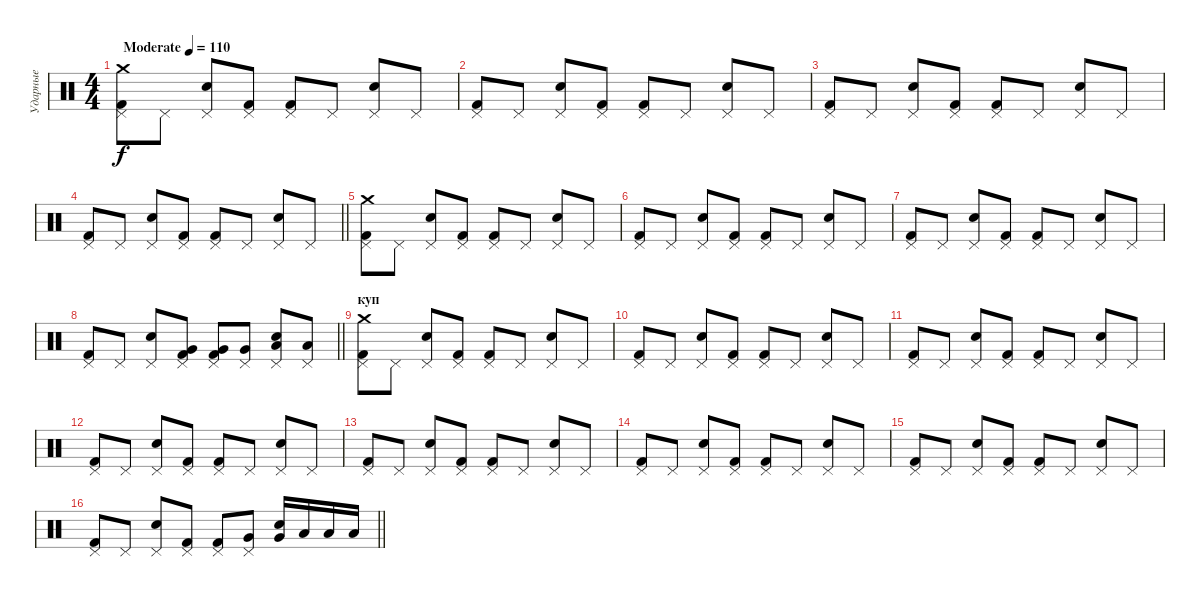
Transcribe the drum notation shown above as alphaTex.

\track ("Ударные" "Ударные") {instrument percussion}
\staff {score}
\articulation defaults
\ts (4 4)
\tempo (110 "Moderate")
\clef neutral
\ks c
("Crash medium (hit)" "Pedal Hi-Hat (hit)" "Kick (hit) 2").8{dy f} "Pedal Hi-Hat (hit)".8 ("Pedal Hi-Hat (hit)" "Electric Snare (hit)").8 ("Pedal Hi-Hat (hit)" "Kick (hit) 2").8 ("Pedal Hi-Hat (hit)" "Kick (hit) 2").8 "Pedal Hi-Hat (hit)".8 ("Pedal Hi-Hat (hit)" "Electric Snare (hit)").8 "Pedal Hi-Hat (hit)".8 |
("Pedal Hi-Hat (hit)" "Kick (hit) 2").8 "Pedal Hi-Hat (hit)".8 ("Pedal Hi-Hat (hit)" "Electric Snare (hit)").8 ("Pedal Hi-Hat (hit)" "Kick (hit) 2").8 ("Pedal Hi-Hat (hit)" "Kick (hit) 2").8 "Pedal Hi-Hat (hit)".8 ("Pedal Hi-Hat (hit)" "Electric Snare (hit)").8 "Pedal Hi-Hat (hit)".8 |
("Pedal Hi-Hat (hit)" "Kick (hit) 2").8 "Pedal Hi-Hat (hit)".8 ("Pedal Hi-Hat (hit)" "Electric Snare (hit)").8 ("Pedal Hi-Hat (hit)" "Kick (hit) 2").8 ("Pedal Hi-Hat (hit)" "Kick (hit) 2").8 "Pedal Hi-Hat (hit)".8 ("Pedal Hi-Hat (hit)" "Electric Snare (hit)").8 "Pedal Hi-Hat (hit)".8 |
\barLineRight lightlight
("Pedal Hi-Hat (hit)" "Kick (hit) 2").8 "Pedal Hi-Hat (hit)".8 ("Pedal Hi-Hat (hit)" "Electric Snare (hit)").8 ("Pedal Hi-Hat (hit)" "Kick (hit) 2").8 ("Pedal Hi-Hat (hit)" "Kick (hit) 2").8 "Pedal Hi-Hat (hit)".8 ("Pedal Hi-Hat (hit)" "Electric Snare (hit)").8 "Pedal Hi-Hat (hit)".8 |
("Crash medium (hit)" "Pedal Hi-Hat (hit)" "Kick (hit) 2").8 "Pedal Hi-Hat (hit)".8 ("Pedal Hi-Hat (hit)" "Electric Snare (hit)").8 ("Pedal Hi-Hat (hit)" "Kick (hit) 2").8 ("Pedal Hi-Hat (hit)" "Kick (hit) 2").8 "Pedal Hi-Hat (hit)".8 ("Pedal Hi-Hat (hit)" "Electric Snare (hit)").8 "Pedal Hi-Hat (hit)".8 |
("Pedal Hi-Hat (hit)" "Kick (hit) 2").8 "Pedal Hi-Hat (hit)".8 ("Pedal Hi-Hat (hit)" "Electric Snare (hit)").8 ("Pedal Hi-Hat (hit)" "Kick (hit) 2").8 ("Pedal Hi-Hat (hit)" "Kick (hit) 2").8 "Pedal Hi-Hat (hit)".8 ("Pedal Hi-Hat (hit)" "Electric Snare (hit)").8 "Pedal Hi-Hat (hit)".8 |
("Pedal Hi-Hat (hit)" "Kick (hit) 2").8 "Pedal Hi-Hat (hit)".8 ("Pedal Hi-Hat (hit)" "Electric Snare (hit)").8 ("Pedal Hi-Hat (hit)" "Kick (hit) 2").8 ("Pedal Hi-Hat (hit)" "Kick (hit) 2").8 "Pedal Hi-Hat (hit)".8 ("Pedal Hi-Hat (hit)" "Electric Snare (hit)").8 "Pedal Hi-Hat (hit)".8 |
\barLineRight lightlight
("Pedal Hi-Hat (hit)" "Kick (hit) 2").8 "Pedal Hi-Hat (hit)".8 ("Pedal Hi-Hat (hit)" "Electric Snare (hit)").8 ("Pedal Hi-Hat (hit)" "Very Low Tom (hit)" "Kick (hit) 2").8 ("Pedal Hi-Hat (hit)" "Very Low Tom (hit)" "Kick (hit) 2").8 ("Pedal Hi-Hat (hit)" "Very Low Tom (hit)").8 ("Pedal Hi-Hat (hit)" "Low Floor Tom (hit)" "Electric Snare (hit)").8 ("Pedal Hi-Hat (hit)" "Low Floor Tom (hit)").8 |
\section ("" "куп")
("Crash medium (hit)" "Pedal Hi-Hat (hit)" "Kick (hit) 2").8 "Pedal Hi-Hat (hit)".8 ("Pedal Hi-Hat (hit)" "Electric Snare (hit)").8 ("Pedal Hi-Hat (hit)" "Kick (hit) 2").8 ("Pedal Hi-Hat (hit)" "Kick (hit) 2").8 "Pedal Hi-Hat (hit)".8 ("Pedal Hi-Hat (hit)" "Electric Snare (hit)").8 "Pedal Hi-Hat (hit)".8 |
("Pedal Hi-Hat (hit)" "Kick (hit) 2").8 "Pedal Hi-Hat (hit)".8 ("Pedal Hi-Hat (hit)" "Electric Snare (hit)").8 ("Pedal Hi-Hat (hit)" "Kick (hit) 2").8 ("Pedal Hi-Hat (hit)" "Kick (hit) 2").8 "Pedal Hi-Hat (hit)".8 ("Pedal Hi-Hat (hit)" "Electric Snare (hit)").8 "Pedal Hi-Hat (hit)".8 |
("Pedal Hi-Hat (hit)" "Kick (hit) 2").8 "Pedal Hi-Hat (hit)".8 ("Pedal Hi-Hat (hit)" "Electric Snare (hit)").8 ("Pedal Hi-Hat (hit)" "Kick (hit) 2").8 ("Pedal Hi-Hat (hit)" "Kick (hit) 2").8 "Pedal Hi-Hat (hit)".8 ("Pedal Hi-Hat (hit)" "Electric Snare (hit)").8 "Pedal Hi-Hat (hit)".8 |
("Pedal Hi-Hat (hit)" "Kick (hit) 2").8 "Pedal Hi-Hat (hit)".8 ("Pedal Hi-Hat (hit)" "Electric Snare (hit)").8 ("Pedal Hi-Hat (hit)" "Kick (hit) 2").8 ("Pedal Hi-Hat (hit)" "Kick (hit) 2").8 "Pedal Hi-Hat (hit)".8 ("Pedal Hi-Hat (hit)" "Electric Snare (hit)").8 "Pedal Hi-Hat (hit)".8 |
("Pedal Hi-Hat (hit)" "Kick (hit) 2").8 "Pedal Hi-Hat (hit)".8 ("Pedal Hi-Hat (hit)" "Electric Snare (hit)").8 ("Pedal Hi-Hat (hit)" "Kick (hit) 2").8 ("Pedal Hi-Hat (hit)" "Kick (hit) 2").8 "Pedal Hi-Hat (hit)".8 ("Pedal Hi-Hat (hit)" "Electric Snare (hit)").8 "Pedal Hi-Hat (hit)".8 |
("Pedal Hi-Hat (hit)" "Kick (hit) 2").8 "Pedal Hi-Hat (hit)".8 ("Pedal Hi-Hat (hit)" "Electric Snare (hit)").8 ("Pedal Hi-Hat (hit)" "Kick (hit) 2").8 ("Pedal Hi-Hat (hit)" "Kick (hit) 2").8 "Pedal Hi-Hat (hit)".8 ("Pedal Hi-Hat (hit)" "Electric Snare (hit)").8 "Pedal Hi-Hat (hit)".8 |
("Pedal Hi-Hat (hit)" "Kick (hit) 2").8 "Pedal Hi-Hat (hit)".8 ("Pedal Hi-Hat (hit)" "Electric Snare (hit)").8 ("Pedal Hi-Hat (hit)" "Kick (hit) 2").8 ("Pedal Hi-Hat (hit)" "Kick (hit) 2").8 "Pedal Hi-Hat (hit)".8 ("Pedal Hi-Hat (hit)" "Electric Snare (hit)").8 "Pedal Hi-Hat (hit)".8 |
\barLineRight lightlight
("Pedal Hi-Hat (hit)" "Kick (hit) 2").8 "Pedal Hi-Hat (hit)".8 ("Pedal Hi-Hat (hit)" "Electric Snare (hit)").8 ("Pedal Hi-Hat (hit)" "Kick (hit) 2").8 ("Pedal Hi-Hat (hit)" "Kick (hit) 2").8 ("Pedal Hi-Hat (hit)" "Very Low Tom (hit)").8 ("Very Low Tom (hit)" "Electric Snare (hit)").16 "Low Floor Tom (hit)".16 "Low Floor Tom (hit)".16 "Low Floor Tom (hit)".16
